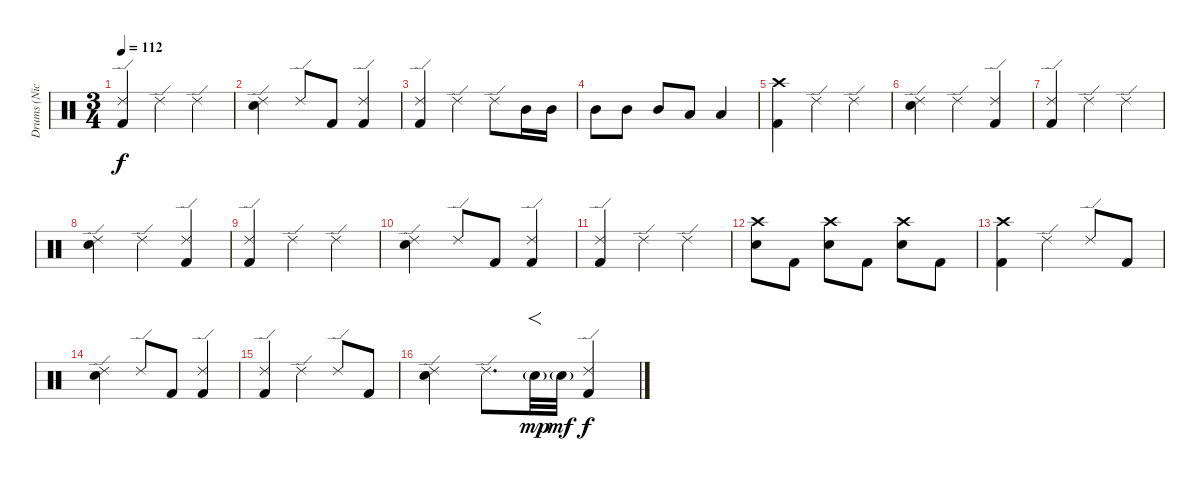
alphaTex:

\track ("Drums (Nick Mason)" "Drums (Nic") {instrument percussion}
\staff {score}
\articulation defaults
\ts (3 4)
\tempo 112
\clef neutral
\ks c
("Ride (edge) 2" "Kick (hit) 2").4{dy f} "Ride (edge) 2".4 "Ride (edge) 2".4 |
("Ride (edge) 2" "Electric Snare (hit)").4 "Ride (edge) 2".8 "Kick (hit) 2".8 ("Ride (edge) 2" "Kick (hit) 2").4 |
("Ride (edge) 2" "Kick (hit) 2").4 "Ride (edge) 2".4 "Ride (edge) 2".8 "Mid Tom (hit)".16 "Mid Tom (hit)".16 |
"Mid Tom (hit)".8 "Mid Tom (hit)".8 "Mid Tom (hit)".8 "Low Tom (hit)".8 "Low Tom (hit)".4 |
("Crash high (hit)" "Kick (hit) 2").4 "Ride (edge) 2".4 "Ride (edge) 2".4 |
("Ride (edge) 2" "Electric Snare (hit)").4 "Ride (edge) 2".4 ("Ride (edge) 2" "Kick (hit) 2").4 |
("Ride (edge) 2" "Kick (hit) 2").4 "Ride (edge) 2".4 "Ride (edge) 2".4 |
("Ride (edge) 2" "Electric Snare (hit)").4 "Ride (edge) 2".4 ("Ride (edge) 2" "Kick (hit) 2").4 |
("Ride (edge) 2" "Kick (hit) 2").4 "Ride (edge) 2".4 "Ride (edge) 2".4 |
("Ride (edge) 2" "Electric Snare (hit)").4 "Ride (edge) 2".8 "Kick (hit) 2".8 ("Ride (edge) 2" "Kick (hit) 2").4 |
("Ride (edge) 2" "Kick (hit) 2").4 "Ride (edge) 2".4 "Ride (edge) 2".4 |
("Crash high (hit)" "Electric Snare (hit)").8 "Kick (hit) 2".8 ("Crash high (hit)" "Electric Snare (hit)").8 "Kick (hit) 2".8 ("Crash high (hit)" "Electric Snare (hit)").8 "Kick (hit) 2".8 |
("Crash high (hit)" "Kick (hit) 2").4 "Ride (edge) 2".4 "Ride (edge) 2".8 "Kick (hit) 2".8 |
("Ride (edge) 2" "Electric Snare (hit)").4 "Ride (edge) 2".8 "Kick (hit) 2".8 ("Ride (edge) 2" "Kick (hit) 2").4 |
("Ride (edge) 2" "Kick (hit) 2").4 "Ride (edge) 2".4 "Ride (edge) 2".8 "Kick (hit) 2".8 |
("Ride (edge) 2" "Electric Snare (hit)").4 "Ride (edge) 2".8{d} "Electric Snare (hit)"{g}.32{f dy mp} "Electric Snare (hit)"{g}.32{dy mf} ("Ride (edge) 2" "Kick (hit) 2").4{dy f}
